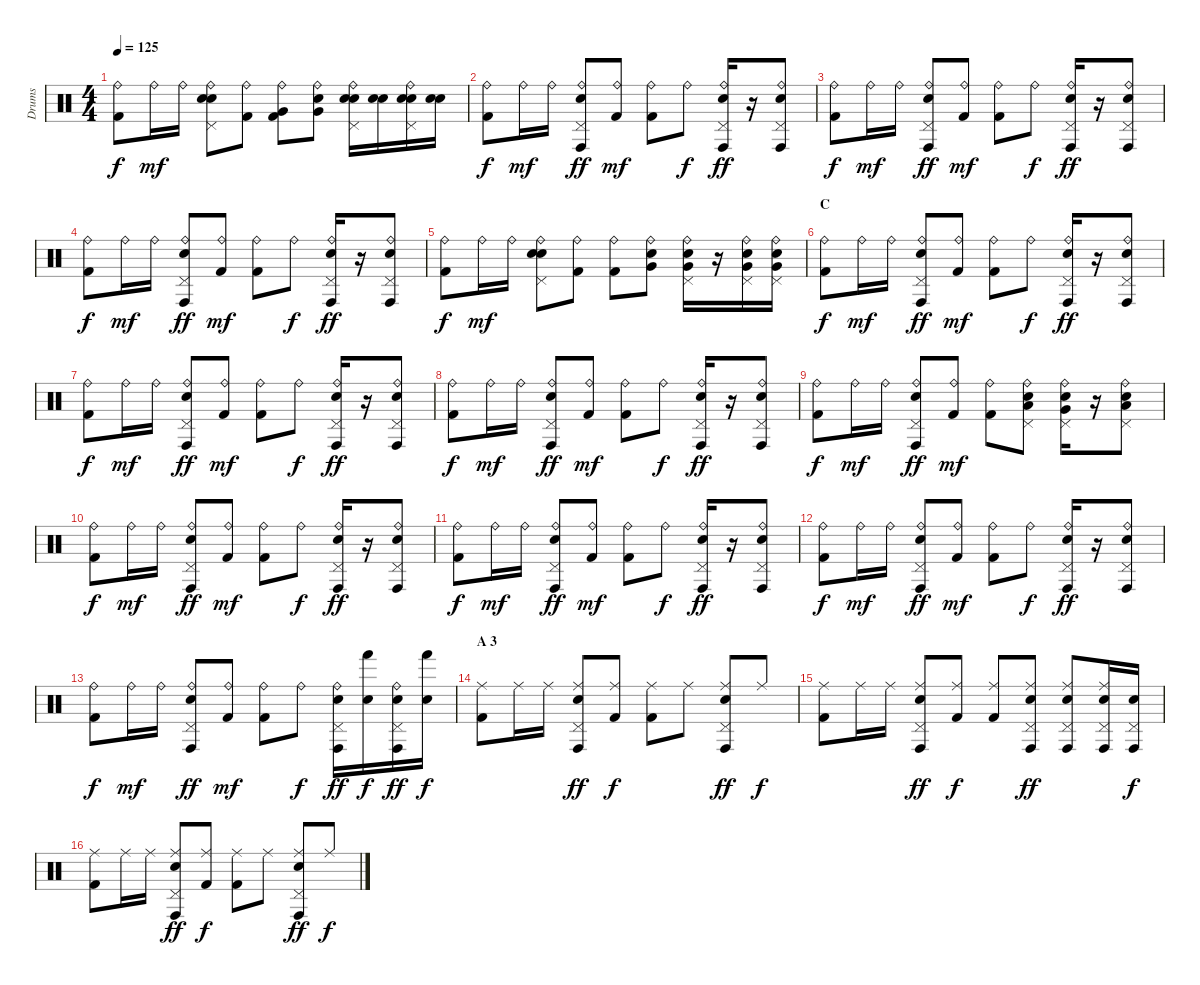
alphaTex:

\track ("Drums" "Drums") {instrument percussion}
\staff {score}
\articulation defaults
\ts (4 4)
\tempo 125
\clef neutral
\ks c
("Ride (bell)" "Kick (hit) 2").8{dy f} "Ride (bell)".16{dy mf} "Ride (bell)".16 ("Ride (bell)" "Pedal Hi-Hat (hit)" "Snare (hit) 2" "Electric Snare (hit)").8 ("Ride (bell)" "Kick (hit) 2").8 ("Ride (bell)" "Very Low Tom (hit)" "Kick (hit) 2").8 ("Ride (bell)" "Very Low Tom (hit)" "Electric Snare (hit)").8 ("Ride (bell)" "Pedal Hi-Hat (hit)" "Snare (hit) 2" "Electric Snare (hit)").16 ("Snare (hit) 2" "Electric Snare (hit)").16 ("Ride (bell)" "Pedal Hi-Hat (hit)" "Snare (hit) 2" "Electric Snare (hit)").16 ("Snare (hit) 2" "Electric Snare (hit)").16 |
("Ride (bell)" "Kick (hit) 2").8{dy f} "Ride (bell)".16{dy mf} "Ride (bell)".16 ("Ride (bell)" "Pedal Hi-Hat (hit)" "Conga high (hit)" "Electric Snare (hit)").8{dy ff} ("Ride (bell)" "Kick (hit) 2").8{dy mf} ("Ride (bell)" "Kick (hit) 2").8 "Ride (bell)".8{dy f} ("Ride (bell)" "Pedal Hi-Hat (hit)" "Conga high (hit)" "Electric Snare (hit)").16{dy ff} r.16 ("Ride (bell)" "Pedal Hi-Hat (hit)" "Conga high (hit)" "Electric Snare (hit)").8 |
("Ride (bell)" "Kick (hit) 2").8{dy f} "Ride (bell)".16{dy mf} "Ride (bell)".16 ("Ride (bell)" "Pedal Hi-Hat (hit)" "Conga high (hit)" "Electric Snare (hit)").8{dy ff} ("Ride (bell)" "Kick (hit) 2").8{dy mf} ("Ride (bell)" "Kick (hit) 2").8 "Ride (bell)".8{dy f} ("Ride (bell)" "Pedal Hi-Hat (hit)" "Conga high (hit)" "Electric Snare (hit)").16{dy ff} r.16 ("Ride (bell)" "Pedal Hi-Hat (hit)" "Conga high (hit)" "Electric Snare (hit)").8 |
("Ride (bell)" "Kick (hit) 2").8{dy f} "Ride (bell)".16{dy mf} "Ride (bell)".16 ("Ride (bell)" "Pedal Hi-Hat (hit)" "Conga high (hit)" "Electric Snare (hit)").8{dy ff} ("Ride (bell)" "Kick (hit) 2").8{dy mf} ("Ride (bell)" "Kick (hit) 2").8 "Ride (bell)".8{dy f} ("Ride (bell)" "Pedal Hi-Hat (hit)" "Conga high (hit)" "Electric Snare (hit)").16{dy ff} r.16 ("Ride (bell)" "Pedal Hi-Hat (hit)" "Conga high (hit)" "Electric Snare (hit)").8 |
("Ride (bell)" "Kick (hit) 2").8{dy f} "Ride (bell)".16{dy mf} "Ride (bell)".16 ("Ride (bell)" "Pedal Hi-Hat (hit)" "Snare (hit) 2" "Electric Snare (hit)").8 ("Ride (bell)" "Kick (hit) 2").8 ("Ride (bell)" "Kick (hit) 2").8 ("Ride (bell)" "Very Low Tom (hit)" "Electric Snare (hit)").8 ("Ride (bell)" "Pedal Hi-Hat (hit)" "Very Low Tom (hit)" "Electric Snare (hit)").16 r.16 ("Ride (bell)" "Pedal Hi-Hat (hit)" "Very Low Tom (hit)" "Electric Snare (hit)").16 ("Ride (bell)" "Pedal Hi-Hat (hit)" "Very Low Tom (hit)" "Electric Snare (hit)").16 |
\section ("" "C")
("Ride (bell)" "Kick (hit) 2").8{dy f} "Ride (bell)".16{dy mf} "Ride (bell)".16 ("Ride (bell)" "Pedal Hi-Hat (hit)" "Conga high (hit)" "Electric Snare (hit)").8{dy ff} ("Ride (bell)" "Kick (hit) 2").8{dy mf} ("Ride (bell)" "Kick (hit) 2").8 "Ride (bell)".8{dy f} ("Ride (bell)" "Pedal Hi-Hat (hit)" "Conga high (hit)" "Electric Snare (hit)").16{dy ff} r.16 ("Ride (bell)" "Pedal Hi-Hat (hit)" "Conga high (hit)" "Electric Snare (hit)").8 |
("Ride (bell)" "Kick (hit) 2").8{dy f} "Ride (bell)".16{dy mf} "Ride (bell)".16 ("Ride (bell)" "Pedal Hi-Hat (hit)" "Conga high (hit)" "Electric Snare (hit)").8{dy ff} ("Ride (bell)" "Kick (hit) 2").8{dy mf} ("Ride (bell)" "Kick (hit) 2").8 "Ride (bell)".8{dy f} ("Ride (bell)" "Pedal Hi-Hat (hit)" "Conga high (hit)" "Electric Snare (hit)").16{dy ff} r.16 ("Ride (bell)" "Pedal Hi-Hat (hit)" "Conga high (hit)" "Electric Snare (hit)").8 |
("Ride (bell)" "Kick (hit) 2").8{dy f} "Ride (bell)".16{dy mf} "Ride (bell)".16 ("Ride (bell)" "Pedal Hi-Hat (hit)" "Conga high (hit)" "Electric Snare (hit)").8{dy ff} ("Ride (bell)" "Kick (hit) 2").8{dy mf} ("Ride (bell)" "Kick (hit) 2").8 "Ride (bell)".8{dy f} ("Ride (bell)" "Pedal Hi-Hat (hit)" "Conga high (hit)" "Electric Snare (hit)").16{dy ff} r.16 ("Ride (bell)" "Pedal Hi-Hat (hit)" "Conga high (hit)" "Electric Snare (hit)").8 |
("Ride (bell)" "Kick (hit) 2").8{dy f} "Ride (bell)".16{dy mf} "Ride (bell)".16 ("Ride (bell)" "Pedal Hi-Hat (hit)" "Conga high (hit)" "Electric Snare (hit)").8{dy ff} ("Ride (bell)" "Kick (hit) 2").8{dy mf} ("Ride (bell)" "Kick (hit) 2").8 ("Ride (bell)" "Pedal Hi-Hat (hit)" "Low Tom (hit)" "Electric Snare (hit)").8 ("Ride (bell)" "Pedal Hi-Hat (hit)" "Very Low Tom (hit)" "Electric Snare (hit)").16 r.16 ("Ride (bell)" "Pedal Hi-Hat (hit)" "Low Floor Tom (hit)" "Electric Snare (hit)").8 |
("Ride (bell)" "Kick (hit) 2").8{dy f} "Ride (bell)".16{dy mf} "Ride (bell)".16 ("Ride (bell)" "Pedal Hi-Hat (hit)" "Conga high (hit)" "Electric Snare (hit)").8{dy ff} ("Ride (bell)" "Kick (hit) 2").8{dy mf} ("Ride (bell)" "Kick (hit) 2").8 "Ride (bell)".8{dy f} ("Ride (bell)" "Pedal Hi-Hat (hit)" "Conga high (hit)" "Electric Snare (hit)").16{dy ff} r.16 ("Ride (bell)" "Pedal Hi-Hat (hit)" "Conga high (hit)" "Electric Snare (hit)").8 |
("Ride (bell)" "Kick (hit) 2").8{dy f} "Ride (bell)".16{dy mf} "Ride (bell)".16 ("Ride (bell)" "Pedal Hi-Hat (hit)" "Conga high (hit)" "Electric Snare (hit)").8{dy ff} ("Ride (bell)" "Kick (hit) 2").8{dy mf} ("Ride (bell)" "Kick (hit) 2").8 "Ride (bell)".8{dy f} ("Ride (bell)" "Pedal Hi-Hat (hit)" "Conga high (hit)" "Electric Snare (hit)").16{dy ff} r.16 ("Ride (bell)" "Pedal Hi-Hat (hit)" "Conga high (hit)" "Electric Snare (hit)").8 |
("Ride (bell)" "Kick (hit) 2").8{dy f} "Ride (bell)".16{dy mf} "Ride (bell)".16 ("Ride (bell)" "Pedal Hi-Hat (hit)" "Conga high (hit)" "Electric Snare (hit)").8{dy ff} ("Ride (bell)" "Kick (hit) 2").8{dy mf} ("Ride (bell)" "Kick (hit) 2").8 "Ride (bell)".8{dy f} ("Ride (bell)" "Pedal Hi-Hat (hit)" "Conga high (hit)" "Electric Snare (hit)").16{dy ff} r.16 ("Ride (bell)" "Pedal Hi-Hat (hit)" "Conga high (hit)" "Electric Snare (hit)").8 |
("Ride (bell)" "Kick (hit) 2").8{dy f} "Ride (bell)".16{dy mf} "Ride (bell)".16 ("Ride (bell)" "Pedal Hi-Hat (hit)" "Conga high (hit)" "Electric Snare (hit)").8{dy ff} ("Ride (bell)" "Kick (hit) 2").8{dy mf} ("Ride (bell)" "Kick (hit) 2").8 "Ride (bell)".8{dy f} ("Ride (bell)" "Pedal Hi-Hat (hit)" "Conga high (hit)" "Electric Snare (hit)").16{dy ff} ("Hand (hit)" "Electric Snare (hit)").16{dy f} ("Ride (bell)" "Pedal Hi-Hat (hit)" "Conga high (hit)" "Electric Snare (hit)").16{dy ff} ("Hand (hit)" "Electric Snare (hit)").16{dy f} |
\section ("" "A 3")
("Ride (middle)" "Kick (hit) 2").8 "Ride (middle)".16 "Ride (middle)".16 ("Ride (middle)" "Pedal Hi-Hat (hit)" "Conga high (hit)" "Electric Snare (hit)").8{dy ff} ("Ride (middle)" "Kick (hit) 2").8{dy f} ("Ride (middle)" "Kick (hit) 2").8 "Ride (middle)".8 ("Ride (middle)" "Pedal Hi-Hat (hit)" "Conga high (hit)" "Electric Snare (hit)").8{dy ff} "Ride (middle)".8{dy f} |
("Ride (middle)" "Kick (hit) 2").8 "Ride (middle)".16 "Ride (middle)".16 ("Ride (middle)" "Pedal Hi-Hat (hit)" "Conga high (hit)" "Electric Snare (hit)").8{dy ff} ("Ride (middle)" "Kick (hit) 2").8{dy f} ("Ride (middle)" "Kick (hit) 2").8 ("Ride (middle)" "Pedal Hi-Hat (hit)" "Conga high (hit)" "Electric Snare (hit)").8{dy ff} ("Ride (middle)" "Pedal Hi-Hat (hit)" "Conga high (hit)" "Electric Snare (hit)").8 ("Ride (middle)" "Pedal Hi-Hat (hit)" "Conga high (hit)" "Electric Snare (hit)").16 ("Pedal Hi-Hat (hit)" "Conga high (hit)" "Electric Snare (hit)").16{dy f} |
("Ride (middle)" "Kick (hit) 2").8 "Ride (middle)".16 "Ride (middle)".16 ("Ride (middle)" "Pedal Hi-Hat (hit)" "Conga high (hit)" "Electric Snare (hit)").8{dy ff} ("Ride (middle)" "Kick (hit) 2").8{dy f} ("Ride (middle)" "Kick (hit) 2").8 "Ride (middle)".8 ("Ride (middle)" "Pedal Hi-Hat (hit)" "Conga high (hit)" "Electric Snare (hit)").8{dy ff} "Ride (middle)".8{dy f}
